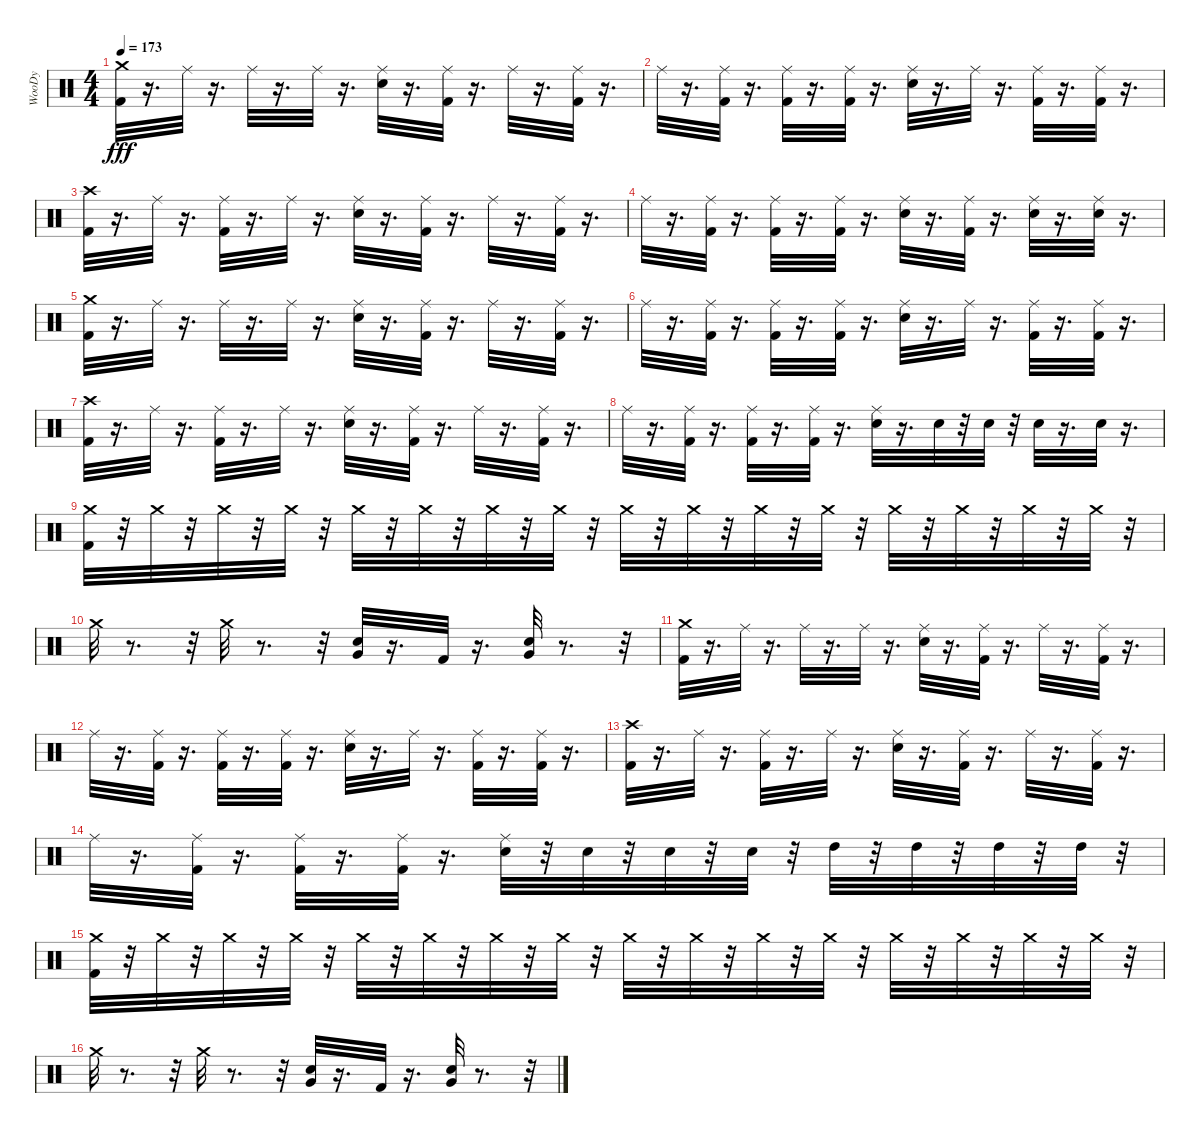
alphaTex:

\track ("WooDy" "WooDy") {instrument percussion}
\staff {score}
\articulation defaults
\ts (4 4)
\tempo 173
\clef neutral
\ks c
("Kick (hit) 2" "Crash medium (hit)").32{dy fff} r.16{d} "Ride (middle)".32 r.16{d} "Ride (middle)".32 r.16{d} "Ride (middle)".32 r.16{d} ("Electric Snare (hit)" "Ride (middle)").32 r.16{d} ("Kick (hit) 2" "Ride (middle)").32 r.16{d} "Ride (middle)".32 r.16{d} ("Kick (hit) 2" "Ride (middle)").32 r.16{d} |
"Ride (middle)".32 r.16{d} ("Kick (hit) 2" "Ride (middle)").32 r.16{d} ("Kick (hit) 2" "Ride (middle)").32 r.16{d} ("Kick (hit) 2" "Ride (middle)").32 r.16{d} ("Electric Snare (hit)" "Ride (middle)").32 r.16{d} "Ride (middle)".32 r.16{d} ("Kick (hit) 2" "Ride (middle)").32 r.16{d} ("Kick (hit) 2" "Ride (middle)").32 r.16{d} |
("Kick (hit) 2" "Crash high (hit)").32 r.16{d} "Ride (middle)".32 r.16{d} ("Kick (hit) 2" "Ride (middle)").32 r.16{d} "Ride (middle)".32 r.16{d} ("Electric Snare (hit)" "Ride (middle)").32 r.16{d} ("Kick (hit) 2" "Ride (middle)").32 r.16{d} "Ride (middle)".32 r.16{d} ("Kick (hit) 2" "Ride (middle)").32 r.16{d} |
"Ride (middle)".32 r.16{d} ("Kick (hit) 2" "Ride (middle)").32 r.16{d} ("Kick (hit) 2" "Ride (middle)").32 r.16{d} ("Kick (hit) 2" "Ride (middle)").32 r.16{d} ("Electric Snare (hit)" "Ride (middle)").32 r.16{d} ("Kick (hit) 2" "Ride (middle)").32 r.16{d} ("Electric Snare (hit)" "Ride (middle)").32 r.16{d} ("Electric Snare (hit)" "Ride (middle)").32 r.16{d} |
("Kick (hit) 2" "Crash medium (hit)").32 r.16{d} "Ride (middle)".32 r.16{d} "Ride (middle)".32 r.16{d} "Ride (middle)".32 r.16{d} ("Electric Snare (hit)" "Ride (middle)").32 r.16{d} ("Kick (hit) 2" "Ride (middle)").32 r.16{d} "Ride (middle)".32 r.16{d} ("Kick (hit) 2" "Ride (middle)").32 r.16{d} |
"Ride (middle)".32 r.16{d} ("Kick (hit) 2" "Ride (middle)").32 r.16{d} ("Kick (hit) 2" "Ride (middle)").32 r.16{d} ("Kick (hit) 2" "Ride (middle)").32 r.16{d} ("Electric Snare (hit)" "Ride (middle)").32 r.16{d} "Ride (middle)".32 r.16{d} ("Kick (hit) 2" "Ride (middle)").32 r.16{d} ("Kick (hit) 2" "Ride (middle)").32 r.16{d} |
("Kick (hit) 2" "Crash high (hit)").32 r.16{d} "Ride (middle)".32 r.16{d} ("Kick (hit) 2" "Ride (middle)").32 r.16{d} "Ride (middle)".32 r.16{d} ("Electric Snare (hit)" "Ride (middle)").32 r.16{d} ("Kick (hit) 2" "Ride (middle)").32 r.16{d} "Ride (middle)".32 r.16{d} ("Kick (hit) 2" "Ride (middle)").32 r.16{d} |
"Ride (middle)".32 r.16{d} ("Kick (hit) 2" "Ride (middle)").32 r.16{d} ("Kick (hit) 2" "Ride (middle)").32 r.16{d} ("Kick (hit) 2" "Ride (middle)").32 r.16{d} ("Electric Snare (hit)" "Ride (middle)").32 r.16{d} "Electric Snare (hit)".32 r.32 "Electric Snare (hit)".32 r.32 "Electric Snare (hit)".32 r.16{d} "Electric Snare (hit)".32 r.16{d} |
("Kick (hit) 2" "Crash medium (hit)").32 r.32 "Crash medium (hit)".32 r.32 "Crash medium (hit)".32 r.32 "Crash medium (hit)".32 r.32 "Crash medium (hit)".32 r.32 "Crash medium (hit)".32 r.32 "Crash medium (hit)".32 r.32 "Crash medium (hit)".32 r.32 "Crash medium (hit)".32 r.32 "Crash medium (hit)".32 r.32 "Crash medium (hit)".32 r.32 "Crash medium (hit)".32 r.32 "Crash medium (hit)".32 r.32 "Crash medium (hit)".32 r.32 "Crash medium (hit)".32 r.32 "Crash medium (hit)".32 r.32 |
"Crash medium (hit)".32 r.8{d} r.32 "Crash medium (hit)".32 r.8{d} r.32 ("Electric Snare (hit)" "Very Low Tom (hit)").32 r.16{d} "Kick (hit) 2".32 r.16{d} ("Electric Snare (hit)" "Very Low Tom (hit)").32 r.8{d} r.32 |
("Kick (hit) 2" "Crash medium (hit)").32 r.16{d} "Ride (middle)".32 r.16{d} "Ride (middle)".32 r.16{d} "Ride (middle)".32 r.16{d} ("Electric Snare (hit)" "Ride (middle)").32 r.16{d} ("Kick (hit) 2" "Ride (middle)").32 r.16{d} "Ride (middle)".32 r.16{d} ("Kick (hit) 2" "Ride (middle)").32 r.16{d} |
"Ride (middle)".32 r.16{d} ("Kick (hit) 2" "Ride (middle)").32 r.16{d} ("Kick (hit) 2" "Ride (middle)").32 r.16{d} ("Kick (hit) 2" "Ride (middle)").32 r.16{d} ("Electric Snare (hit)" "Ride (middle)").32 r.16{d} "Ride (middle)".32 r.16{d} ("Kick (hit) 2" "Ride (middle)").32 r.16{d} ("Kick (hit) 2" "Ride (middle)").32 r.16{d} |
("Kick (hit) 2" "Crash high (hit)").32 r.16{d} "Ride (middle)".32 r.16{d} ("Kick (hit) 2" "Ride (middle)").32 r.16{d} "Ride (middle)".32 r.16{d} ("Electric Snare (hit)" "Ride (middle)").32 r.16{d} ("Kick (hit) 2" "Ride (middle)").32 r.16{d} "Ride (middle)".32 r.16{d} ("Kick (hit) 2" "Ride (middle)").32 r.16{d} |
"Ride (middle)".32 r.16{d} ("Kick (hit) 2" "Ride (middle)").32 r.16{d} ("Kick (hit) 2" "Ride (middle)").32 r.16{d} ("Kick (hit) 2" "Ride (middle)").32 r.16{d} ("Electric Snare (hit)" "Ride (middle)").32 r.32 "Electric Snare (hit)".32 r.32 "Electric Snare (hit)".32 r.32 "Electric Snare (hit)".32 r.32 "High Tom (hit)".32 r.32 "High Tom (hit)".32 r.32 "High Tom (hit)".32 r.32 "High Tom (hit)".32 r.32 |
("Kick (hit) 2" "Crash medium (hit)").32 r.32 "Crash medium (hit)".32 r.32 "Crash medium (hit)".32 r.32 "Crash medium (hit)".32 r.32 "Crash medium (hit)".32 r.32 "Crash medium (hit)".32 r.32 "Crash medium (hit)".32 r.32 "Crash medium (hit)".32 r.32 "Crash medium (hit)".32 r.32 "Crash medium (hit)".32 r.32 "Crash medium (hit)".32 r.32 "Crash medium (hit)".32 r.32 "Crash medium (hit)".32 r.32 "Crash medium (hit)".32 r.32 "Crash medium (hit)".32 r.32 "Crash medium (hit)".32 r.32 |
"Crash medium (hit)".32 r.8{d} r.32 "Crash medium (hit)".32 r.8{d} r.32 ("Electric Snare (hit)" "Very Low Tom (hit)").32 r.16{d} "Kick (hit) 2".32 r.16{d} ("Electric Snare (hit)" "Very Low Tom (hit)").32 r.8{d} r.32
